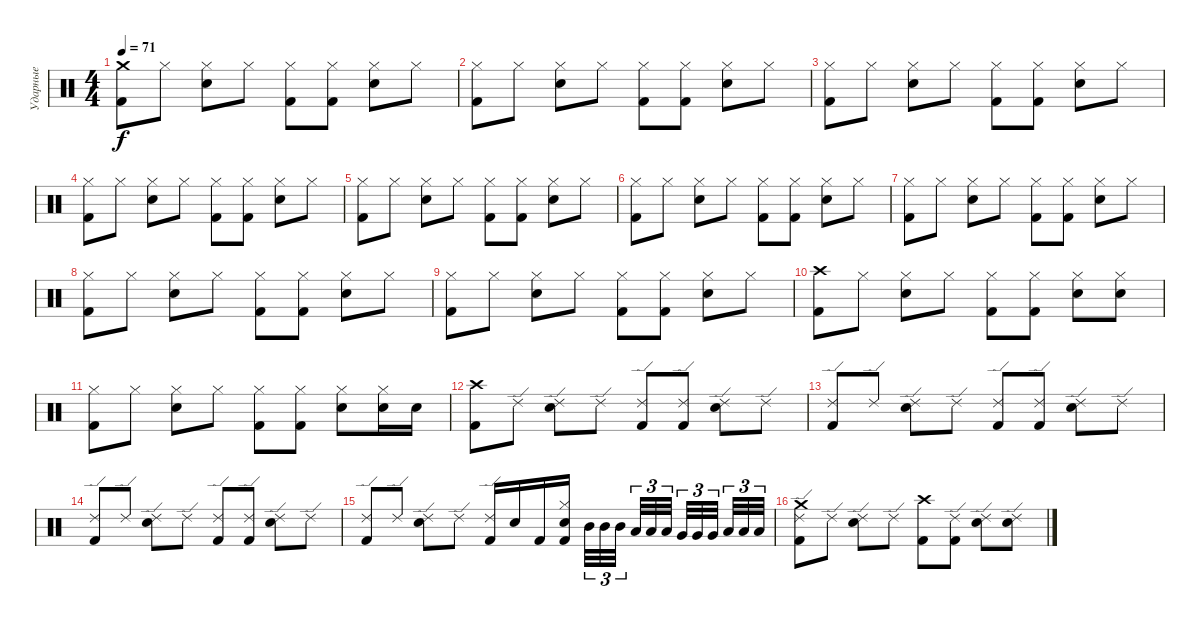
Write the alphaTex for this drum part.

\track ("Ударные" "Ударные") {instrument percussion}
\staff {score}
\articulation defaults
\ts (4 4)
\tempo 71
\clef neutral
\ks c
("Crash medium (hit)" "Kick (hit) 2").8{dy f} "Hi-Hat (closed)".8 ("Hi-Hat (closed)" "Snare (hit) 2").8 "Hi-Hat (closed)".8 ("Hi-Hat (closed)" "Kick (hit) 2").8 ("Hi-Hat (closed)" "Kick (hit) 2").8 ("Hi-Hat (closed)" "Snare (hit) 2").8 "Hi-Hat (closed)".8 |
("Hi-Hat (closed)" "Kick (hit) 2").8 "Hi-Hat (closed)".8 ("Hi-Hat (closed)" "Snare (hit) 2").8 "Hi-Hat (closed)".8 ("Hi-Hat (closed)" "Kick (hit) 2").8 ("Hi-Hat (closed)" "Kick (hit) 2").8 ("Hi-Hat (closed)" "Snare (hit) 2").8 "Hi-Hat (closed)".8 |
("Hi-Hat (closed)" "Kick (hit) 2").8 "Hi-Hat (closed)".8 ("Hi-Hat (closed)" "Snare (hit) 2").8 "Hi-Hat (closed)".8 ("Hi-Hat (closed)" "Kick (hit) 2").8 ("Hi-Hat (closed)" "Kick (hit) 2").8 ("Hi-Hat (closed)" "Snare (hit) 2").8 "Hi-Hat (closed)".8 |
("Hi-Hat (closed)" "Kick (hit) 2").8 "Hi-Hat (closed)".8 ("Hi-Hat (closed)" "Snare (hit) 2").8 "Hi-Hat (closed)".8 ("Hi-Hat (closed)" "Kick (hit) 2").8 ("Hi-Hat (closed)" "Kick (hit) 2").8 ("Hi-Hat (closed)" "Snare (hit) 2").8 "Hi-Hat (closed)".8 |
("Hi-Hat (closed)" "Kick (hit) 2").8 "Hi-Hat (closed)".8 ("Hi-Hat (closed)" "Snare (hit) 2").8 "Hi-Hat (closed)".8 ("Hi-Hat (closed)" "Kick (hit) 2").8 ("Hi-Hat (closed)" "Kick (hit) 2").8 ("Hi-Hat (closed)" "Snare (hit) 2").8 "Hi-Hat (closed)".8 |
("Hi-Hat (closed)" "Kick (hit) 2").8 "Hi-Hat (closed)".8 ("Hi-Hat (closed)" "Snare (hit) 2").8 "Hi-Hat (closed)".8 ("Hi-Hat (closed)" "Kick (hit) 2").8 ("Hi-Hat (closed)" "Kick (hit) 2").8 ("Hi-Hat (closed)" "Snare (hit) 2").8 "Hi-Hat (closed)".8 |
("Hi-Hat (closed)" "Kick (hit) 2").8 "Hi-Hat (closed)".8 ("Hi-Hat (closed)" "Snare (hit) 2").8 "Hi-Hat (closed)".8 ("Hi-Hat (closed)" "Kick (hit) 2").8 ("Hi-Hat (closed)" "Kick (hit) 2").8 ("Hi-Hat (closed)" "Snare (hit) 2").8 "Hi-Hat (closed)".8 |
("Hi-Hat (closed)" "Kick (hit) 2").8 "Hi-Hat (closed)".8 ("Hi-Hat (closed)" "Snare (hit) 2").8 "Hi-Hat (closed)".8 ("Hi-Hat (closed)" "Kick (hit) 2").8 ("Hi-Hat (closed)" "Kick (hit) 2").8 ("Hi-Hat (closed)" "Snare (hit) 2").8 "Hi-Hat (closed)".8 |
("Hi-Hat (closed)" "Kick (hit) 2").8 "Hi-Hat (closed)".8 ("Hi-Hat (closed)" "Snare (hit) 2").8 "Hi-Hat (closed)".8 ("Hi-Hat (closed)" "Kick (hit) 2").8 ("Hi-Hat (closed)" "Kick (hit) 2").8 ("Hi-Hat (closed)" "Snare (hit) 2").8 "Hi-Hat (closed)".8 |
("Crash high (hit)" "Kick (hit) 2").8 "Hi-Hat (closed)".8 ("Hi-Hat (closed)" "Snare (hit) 2").8 "Hi-Hat (closed)".8 ("Hi-Hat (closed)" "Kick (hit) 2").8 ("Hi-Hat (closed)" "Kick (hit) 2").8 ("Hi-Hat (closed)" "Snare (hit) 2").8 ("Hi-Hat (closed)" "Snare (hit) 2").8 |
("Hi-Hat (closed)" "Kick (hit) 2").8 "Hi-Hat (closed)".8 ("Hi-Hat (closed)" "Snare (hit) 2").8 "Hi-Hat (closed)".8 ("Hi-Hat (closed)" "Kick (hit) 2").8 ("Hi-Hat (closed)" "Kick (hit) 2").8 ("Hi-Hat (closed)" "Snare (hit) 2").8 ("Hi-Hat (closed)" "Snare (hit) 2").16 "Snare (hit) 2".16 |
("Crash high (hit)" "Kick (hit) 2").8 "Ride (edge) 2".8 ("Ride (edge) 2" "Snare (hit) 2").8 "Ride (edge) 2".8 ("Ride (edge) 2" "Kick (hit) 2").8 ("Ride (edge) 2" "Kick (hit) 2").8 ("Ride (edge) 2" "Snare (hit) 2").8 "Ride (edge) 2".8 |
("Ride (edge) 2" "Kick (hit) 2").8 "Ride (edge) 2".8 ("Ride (edge) 2" "Snare (hit) 2").8 "Ride (edge) 2".8 ("Ride (edge) 2" "Kick (hit) 2").8 ("Ride (edge) 2" "Kick (hit) 2").8 ("Ride (edge) 2" "Snare (hit) 2").8 "Ride (edge) 2".8 |
("Ride (edge) 2" "Kick (hit) 2").8 "Ride (edge) 2".8 ("Ride (edge) 2" "Snare (hit) 2").8 "Ride (edge) 2".8 ("Ride (edge) 2" "Kick (hit) 2").8 ("Ride (edge) 2" "Kick (hit) 2").8 ("Ride (edge) 2" "Snare (hit) 2").8 "Ride (edge) 2".8 |
("Ride (edge) 2" "Kick (hit) 2").8 "Ride (edge) 2".8 ("Ride (edge) 2" "Snare (hit) 2").8 "Ride (edge) 2".8 ("Ride (edge) 2" "Kick (hit) 2").16 "Snare (hit) 2".16 "Kick (hit) 2".16 ("Hi-Hat (closed)" "Snare (hit) 2" "Kick (hit) 2").16 "Mid Tom (hit)".32{tu (3 2)} "Mid Tom (hit)".32{tu (3 2)} "Mid Tom (hit)".32{tu (3 2)} "Low Tom (hit)".32{tu (3 2)} "Low Tom (hit)".32{tu (3 2)} "Low Tom (hit)".32{tu (3 2)} "Very Low Tom (hit)".32{tu (3 2)} "Very Low Tom (hit)".32{tu (3 2)} "Very Low Tom (hit)".32{tu (3 2)} "Low Floor Tom (hit)".32{tu (3 2)} "Low Floor Tom (hit)".32{tu (3 2)} "Low Floor Tom (hit)".32{tu (3 2)} |
("Ride (edge) 2" "Crash medium (hit)" "Kick (hit) 2").8 "Ride (edge) 2".8 ("Ride (edge) 2" "Snare (hit) 2").8 "Ride (edge) 2".8 ("Crash high (hit)" "Kick (hit) 2").8 ("Ride (edge) 2" "Kick (hit) 2").8 ("Ride (edge) 2" "Snare (hit) 2").8 ("Ride (edge) 2" "Snare (hit) 2").8
